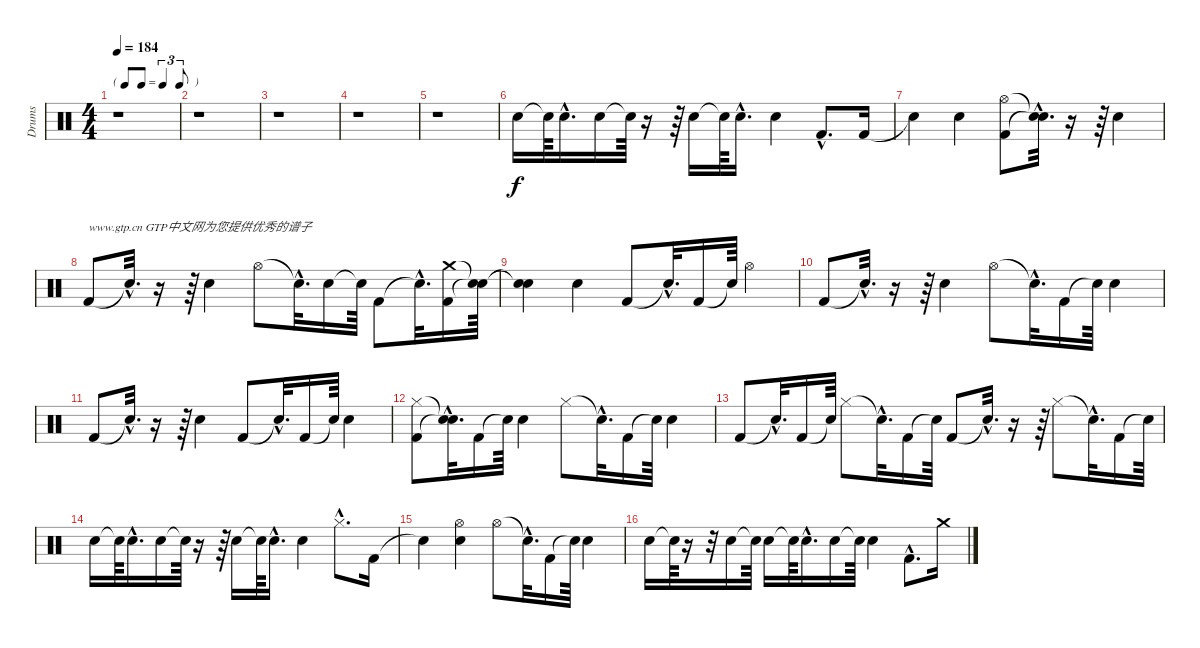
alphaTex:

\track ("Drums" "Drums") {instrument percussion}
\staff {score}
\articulation defaults
\ts (4 4)
\tf triplet8th
\tempo 184
\clef neutral
\ks c
r.1{dy f} |
r.1 |
r.1 |
r.1 |
r.1 |
"Snare (hit) 2".16 "Snare (hit)"{t}.64 "Snare (hit) 2"{hac}.16{d} "Snare (hit) 2".16 "Snare (hit)"{t}.64 r.16 r.64 "Snare (hit) 2".16 "Snare (hit)"{t}.64 "Snare (hit) 2"{hac}.16{d} "Snare (hit) 2".4 "Kick (hit) 2"{hac}.8{d} "Kick (hit) 2".16 |
"Snare (hit)"{t}.4 "Snare (hit) 2".4 ("Hi-Hat (open)" "Kick (hit) 2").8 ("Snare (hit)"{hac t} "Snare (hit)"{hac t}).32{d} r.16 r.64 "Snare (hit) 2".4 |
"Kick (hit) 2".8{txt "www.gtp.cn GTP中文网为您提供优秀的谱子"} "Snare (hit)"{hac t}.32{d} r.16 r.64 "Snare (hit) 2".4 "Hi-Hat (open)".8 "Snare (hit)"{hac t}.32{d} "Snare (hit) 2".16 "Snare (hit)"{t}.64 "Kick (hit) 2".8 "Snare (hit)"{hac t}.32{d} ("Crash medium (hit)" "Kick (hit) 2").16 ("Snare (hit)"{t} "Snare (hit)"{t}).64 |
("Snare (hit)"{t} "Snare (hit)"{t}).4 "Snare (hit) 2".4 "Kick (hit) 2".8 "Snare (hit)"{hac t}.32{d} "Kick (hit) 2".16 "Snare (hit)"{t}.64 "Hi-Hat (open)".4 |
"Kick (hit) 2".8 "Snare (hit)"{hac t}.32{d} r.16 r.64 "Snare (hit) 2".4 "Hi-Hat (open)".8 "Snare (hit)"{hac t}.32{d} "Kick (hit) 2".16 "Snare (hit)"{t}.64 "Snare (hit) 2".4 |
"Kick (hit) 2".8 "Snare (hit)"{hac t}.32{d} r.16 r.64 "Snare (hit) 2".4 "Kick (hit) 2".8 "Snare (hit)"{hac t}.32{d} "Kick (hit) 2".16 "Snare (hit)"{t}.64 "Snare (hit) 2".4 |
("Hi-Hat (closed)" "Kick (hit) 2").8 ("Snare (hit)"{hac t} "Snare (hit)"{hac t}).32{d} "Kick (hit) 2".16 "Snare (hit)"{t}.64 "Snare (hit) 2".4 "Hi-Hat (closed)".8 "Snare (hit)"{hac t}.32{d} "Kick (hit) 2".16 "Snare (hit)"{t}.64 "Snare (hit) 2".4 |
"Kick (hit) 2".8 "Snare (hit)"{hac t}.32{d} "Kick (hit) 2".16 "Snare (hit)"{t}.64 "Hi-Hat (closed)".8 "Snare (hit)"{hac t}.32{d} "Kick (hit) 2".16 "Snare (hit)"{t}.64 "Kick (hit) 2".8 "Snare (hit)"{hac t}.32{d} r.16 r.64 "Hi-Hat (closed)".8 "Snare (hit)"{hac t}.32{d} "Kick (hit) 2".16 "Snare (hit)"{t}.64 |
"Snare (hit) 2".16 "Snare (hit)"{t}.64 "Snare (hit) 2"{hac}.16{d} "Snare (hit) 2".16 "Snare (hit)"{t}.64 r.16 r.64 "Snare (hit) 2".16 "Snare (hit)"{t}.64 "Snare (hit) 2"{hac}.16{d} "Snare (hit) 2".4 "Hi-Hat (closed)"{hac}.8{d} "Kick (hit) 2".16 |
"Snare (hit)"{t}.4 ("Hi-Hat (open)" "Snare (hit) 2").4 "Hi-Hat (open)".8 "Snare (hit)"{hac t}.32{d} "Kick (hit) 2".16 "Snare (hit)"{t}.64 "Snare (hit) 2".4 |
"Snare (hit) 2".16 "Snare (hit)"{t}.64 r.16 r.32 "Snare (hit) 2".16 "Snare (hit)"{t}.64 "Snare (hit) 2".16 "Snare (hit)"{t}.64 "Snare (hit) 2"{hac}.16{d} "Snare (hit) 2".16 "Snare (hit)"{t}.64 "Snare (hit) 2".4 "Kick (hit) 2"{hac}.8{d} "Crash medium (hit)".16
